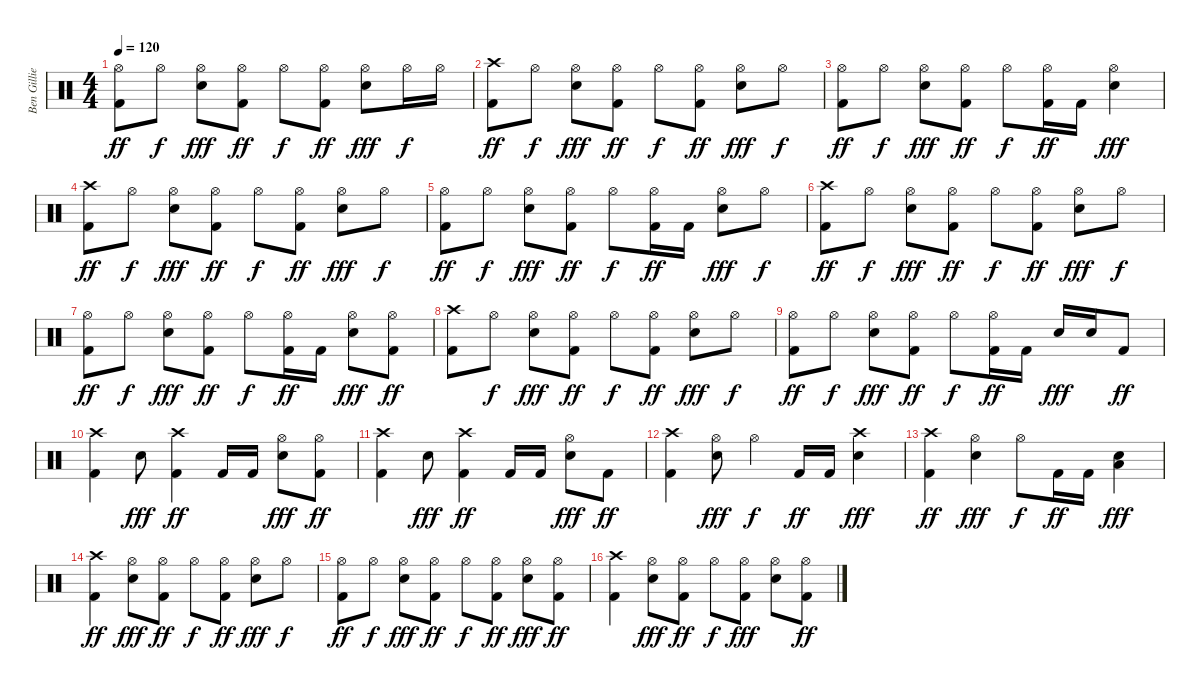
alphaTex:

\track ("Ben Gillies" "Ben Gillie") {instrument percussion}
\staff {score}
\articulation defaults
\ts (4 4)
\tempo 120
\clef neutral
\ks c
("Hi-Hat (open)" "Kick (hit) 2").8{dy ff} "Hi-Hat (open)".8{dy f} ("Hi-Hat (open)" "Electric Snare (hit)").8{dy fff} ("Hi-Hat (open)" "Kick (hit) 2").8{dy ff} "Hi-Hat (open)".8{dy f} ("Hi-Hat (open)" "Kick (hit) 2").8{dy ff} ("Hi-Hat (open)" "Electric Snare (hit)").8{dy fff} "Hi-Hat (open)".16{dy f} "Hi-Hat (open)".16 |
("Crash high (hit)" "Kick (hit) 2").8{dy ff} "Hi-Hat (open)".8{dy f} ("Hi-Hat (open)" "Electric Snare (hit)").8{dy fff} ("Hi-Hat (open)" "Kick (hit) 2").8{dy ff} "Hi-Hat (open)".8{dy f} ("Hi-Hat (open)" "Kick (hit) 2").8{dy ff} ("Hi-Hat (open)" "Electric Snare (hit)").8{dy fff} "Hi-Hat (open)".8{dy f} |
("Hi-Hat (open)" "Kick (hit) 2").8{dy ff} "Hi-Hat (open)".8{dy f} ("Hi-Hat (open)" "Electric Snare (hit)").8{dy fff} ("Hi-Hat (open)" "Kick (hit) 2").8{dy ff} "Hi-Hat (open)".8{dy f} ("Hi-Hat (open)" "Kick (hit) 2").16{dy ff} "Kick (hit) 2".16 ("Hi-Hat (open)" "Electric Snare (hit)").4{dy fff} |
("Crash high (hit)" "Kick (hit) 2").8{dy ff} "Hi-Hat (open)".8{dy f} ("Hi-Hat (open)" "Electric Snare (hit)").8{dy fff} ("Hi-Hat (open)" "Kick (hit) 2").8{dy ff} "Hi-Hat (open)".8{dy f} ("Hi-Hat (open)" "Kick (hit) 2").8{dy ff} ("Hi-Hat (open)" "Electric Snare (hit)").8{dy fff} "Hi-Hat (open)".8{dy f} |
("Hi-Hat (open)" "Kick (hit) 2").8{dy ff} "Hi-Hat (open)".8{dy f} ("Hi-Hat (open)" "Electric Snare (hit)").8{dy fff} ("Hi-Hat (open)" "Kick (hit) 2").8{dy ff} "Hi-Hat (open)".8{dy f} ("Hi-Hat (open)" "Kick (hit) 2").16{dy ff} "Kick (hit) 2".16 ("Hi-Hat (open)" "Electric Snare (hit)").8{dy fff} "Hi-Hat (open)".8{dy f} |
("Crash high (hit)" "Kick (hit) 2").8{dy ff} "Hi-Hat (open)".8{dy f} ("Hi-Hat (open)" "Electric Snare (hit)").8{dy fff} ("Hi-Hat (open)" "Kick (hit) 2").8{dy ff} "Hi-Hat (open)".8{dy f} ("Hi-Hat (open)" "Kick (hit) 2").8{dy ff} ("Hi-Hat (open)" "Electric Snare (hit)").8{dy fff} "Hi-Hat (open)".8{dy f} |
("Hi-Hat (open)" "Kick (hit) 2").8{dy ff} "Hi-Hat (open)".8{dy f} ("Hi-Hat (open)" "Electric Snare (hit)").8{dy fff} ("Hi-Hat (open)" "Kick (hit) 2").8{dy ff} "Hi-Hat (open)".8{dy f} ("Hi-Hat (open)" "Kick (hit) 2").16{dy ff} "Kick (hit) 2".16 ("Hi-Hat (open)" "Electric Snare (hit)").8{dy fff} ("Hi-Hat (open)" "Kick (hit) 2").8{dy ff} |
("Crash high (hit)" "Kick (hit) 2").8 "Hi-Hat (open)".8{dy f} ("Hi-Hat (open)" "Electric Snare (hit)").8{dy fff} ("Hi-Hat (open)" "Kick (hit) 2").8{dy ff} "Hi-Hat (open)".8{dy f} ("Hi-Hat (open)" "Kick (hit) 2").8{dy ff} ("Hi-Hat (open)" "Electric Snare (hit)").8{dy fff} "Hi-Hat (open)".8{dy f} |
("Hi-Hat (open)" "Kick (hit) 2").8{dy ff} "Hi-Hat (open)".8{dy f} ("Hi-Hat (open)" "Electric Snare (hit)").8{dy fff} ("Hi-Hat (open)" "Kick (hit) 2").8{dy ff} "Hi-Hat (open)".8{dy f} ("Hi-Hat (open)" "Kick (hit) 2").16{dy ff} "Kick (hit) 2".16 "Electric Snare (hit)".16{dy fff} "Electric Snare (hit)".16 "Kick (hit) 2".8{dy ff} |
("Crash high (hit)" "Kick (hit) 2").4 "Electric Snare (hit)".8{dy fff} ("Crash high (hit)" "Kick (hit) 2").4{dy ff} "Kick (hit) 2".16 "Kick (hit) 2".16 ("Hi-Hat (open)" "Electric Snare (hit)").8{dy fff} ("Hi-Hat (open)" "Kick (hit) 2").8{dy ff} |
("Crash high (hit)" "Kick (hit) 2").4 "Electric Snare (hit)".8{dy fff} ("Crash high (hit)" "Kick (hit) 2").4{dy ff} "Kick (hit) 2".16 "Kick (hit) 2".16 ("Hi-Hat (open)" "Electric Snare (hit)").8{dy fff} "Kick (hit) 2".8{dy ff} |
("Crash high (hit)" "Kick (hit) 2").4 ("Hi-Hat (open)" "Electric Snare (hit)").8{dy fff} "Hi-Hat (open)".4{dy f} "Kick (hit) 2".16{dy ff} "Kick (hit) 2".16 ("Crash high (hit)" "Electric Snare (hit)").4{dy fff} |
("Crash high (hit)" "Kick (hit) 2").4{dy ff} ("Hi-Hat (open)" "Electric Snare (hit)").4{dy fff} "Hi-Hat (open)".8{dy f} "Kick (hit) 2".16{dy ff} "Kick (hit) 2".16 ("Low Floor Tom (hit)" "Electric Snare (hit)").4{dy fff} |
("Crash high (hit)" "Kick (hit) 2").4{dy ff} ("Hi-Hat (open)" "Electric Snare (hit)").8{dy fff} ("Hi-Hat (open)" "Kick (hit) 2").8{dy ff} "Hi-Hat (open)".8{dy f} ("Hi-Hat (open)" "Kick (hit) 2").8{dy ff} ("Hi-Hat (open)" "Electric Snare (hit)").8{dy fff} "Hi-Hat (open)".8{dy f} |
("Hi-Hat (open)" "Kick (hit) 2").8{dy ff} "Hi-Hat (open)".8{dy f} ("Hi-Hat (open)" "Electric Snare (hit)").8{dy fff} ("Hi-Hat (open)" "Kick (hit) 2").8{dy ff} "Hi-Hat (open)".8{dy f} ("Hi-Hat (open)" "Kick (hit) 2").8{dy ff} ("Hi-Hat (open)" "Electric Snare (hit)").8{dy fff} ("Hi-Hat (open)" "Kick (hit) 2").8{dy ff} |
("Crash high (hit)" "Kick (hit) 2").4 ("Hi-Hat (open)" "Electric Snare (hit)").8{dy fff} ("Hi-Hat (open)" "Kick (hit) 2").8{dy ff} "Hi-Hat (open)".8{dy f} ("Hi-Hat (open)" "Kick (hit) 2").8{dy fff} ("Hi-Hat (open)" "Electric Snare (hit)").8 ("Hi-Hat (open)" "Kick (hit) 2").8{dy ff}
